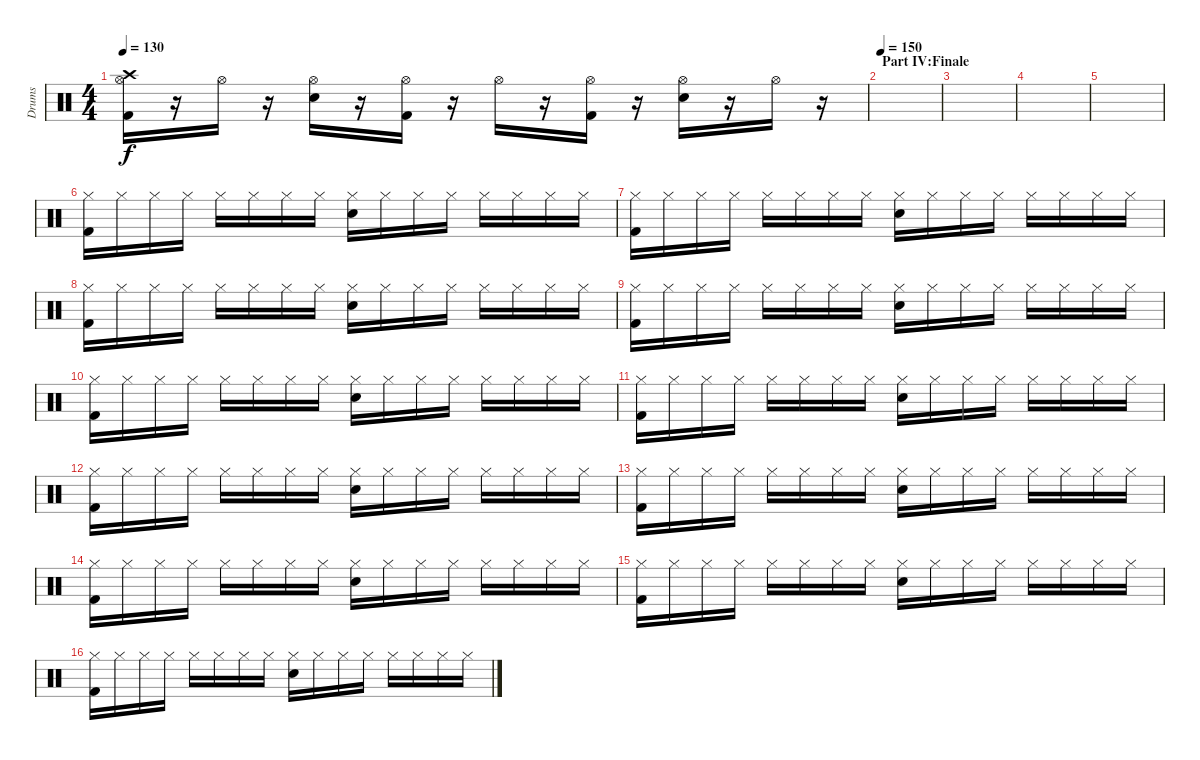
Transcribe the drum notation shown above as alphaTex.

\track ("Drums" "Drums") {instrument percussion}
\staff {score}
\articulation defaults
\ts (4 4)
\tempo 130
\clef neutral
\ks c
("Crash high (hit)" "Hi-Hat (open)" "Kick (hit) 2").16{dy f} r.16 "Hi-Hat (open)".16 r.16 ("Hi-Hat (open)" "Snare (hit) 2").16 r.16 ("Hi-Hat (open)" "Kick (hit) 2").16 r.16 "Hi-Hat (open)".16 r.16 ("Hi-Hat (open)" "Kick (hit) 2").16 r.16 ("Hi-Hat (open)" "Snare (hit) 2").16 r.16 "Hi-Hat (open)".16 r.16 |
\section ("" "Part IV:Finale")
\tempo 150
|
|
|
|
("Hi-Hat (closed)" "Kick (hit) 2").16 "Hi-Hat (closed)".16 "Hi-Hat (closed)".16 "Hi-Hat (closed)".16 "Hi-Hat (closed)".16 "Hi-Hat (closed)".16 "Hi-Hat (closed)".16 "Hi-Hat (closed)".16 ("Hi-Hat (closed)" "Snare (hit) 2").16 "Hi-Hat (closed)".16 "Hi-Hat (closed)".16 "Hi-Hat (closed)".16 "Hi-Hat (closed)".16 "Hi-Hat (closed)".16 "Hi-Hat (closed)".16 "Hi-Hat (closed)".16 |
("Hi-Hat (closed)" "Kick (hit) 2").16 "Hi-Hat (closed)".16 "Hi-Hat (closed)".16 "Hi-Hat (closed)".16 "Hi-Hat (closed)".16 "Hi-Hat (closed)".16 "Hi-Hat (closed)".16 "Hi-Hat (closed)".16 ("Hi-Hat (closed)" "Snare (hit) 2").16 "Hi-Hat (closed)".16 "Hi-Hat (closed)".16 "Hi-Hat (closed)".16 "Hi-Hat (closed)".16 "Hi-Hat (closed)".16 "Hi-Hat (closed)".16 "Hi-Hat (closed)".16 |
("Hi-Hat (closed)" "Kick (hit) 2").16 "Hi-Hat (closed)".16 "Hi-Hat (closed)".16 "Hi-Hat (closed)".16 "Hi-Hat (closed)".16 "Hi-Hat (closed)".16 "Hi-Hat (closed)".16 "Hi-Hat (closed)".16 ("Hi-Hat (closed)" "Snare (hit) 2").16 "Hi-Hat (closed)".16 "Hi-Hat (closed)".16 "Hi-Hat (closed)".16 "Hi-Hat (closed)".16 "Hi-Hat (closed)".16 "Hi-Hat (closed)".16 "Hi-Hat (closed)".16 |
("Hi-Hat (closed)" "Kick (hit) 2").16 "Hi-Hat (closed)".16 "Hi-Hat (closed)".16 "Hi-Hat (closed)".16 "Hi-Hat (closed)".16 "Hi-Hat (closed)".16 "Hi-Hat (closed)".16 "Hi-Hat (closed)".16 ("Hi-Hat (closed)" "Snare (hit) 2").16 "Hi-Hat (closed)".16 "Hi-Hat (closed)".16 "Hi-Hat (closed)".16 "Hi-Hat (closed)".16 "Hi-Hat (closed)".16 "Hi-Hat (closed)".16 "Hi-Hat (closed)".16 |
("Hi-Hat (closed)" "Kick (hit) 2").16 "Hi-Hat (closed)".16 "Hi-Hat (closed)".16 "Hi-Hat (closed)".16 "Hi-Hat (closed)".16 "Hi-Hat (closed)".16 "Hi-Hat (closed)".16 "Hi-Hat (closed)".16 ("Hi-Hat (closed)" "Snare (hit) 2").16 "Hi-Hat (closed)".16 "Hi-Hat (closed)".16 "Hi-Hat (closed)".16 "Hi-Hat (closed)".16 "Hi-Hat (closed)".16 "Hi-Hat (closed)".16 "Hi-Hat (closed)".16 |
("Hi-Hat (closed)" "Kick (hit) 2").16 "Hi-Hat (closed)".16 "Hi-Hat (closed)".16 "Hi-Hat (closed)".16 "Hi-Hat (closed)".16 "Hi-Hat (closed)".16 "Hi-Hat (closed)".16 "Hi-Hat (closed)".16 ("Hi-Hat (closed)" "Snare (hit) 2").16 "Hi-Hat (closed)".16 "Hi-Hat (closed)".16 "Hi-Hat (closed)".16 "Hi-Hat (closed)".16 "Hi-Hat (closed)".16 "Hi-Hat (closed)".16 "Hi-Hat (closed)".16 |
("Hi-Hat (closed)" "Kick (hit) 2").16 "Hi-Hat (closed)".16 "Hi-Hat (closed)".16 "Hi-Hat (closed)".16 "Hi-Hat (closed)".16 "Hi-Hat (closed)".16 "Hi-Hat (closed)".16 "Hi-Hat (closed)".16 ("Hi-Hat (closed)" "Snare (hit) 2").16 "Hi-Hat (closed)".16 "Hi-Hat (closed)".16 "Hi-Hat (closed)".16 "Hi-Hat (closed)".16 "Hi-Hat (closed)".16 "Hi-Hat (closed)".16 "Hi-Hat (closed)".16 |
("Hi-Hat (closed)" "Kick (hit) 2").16 "Hi-Hat (closed)".16 "Hi-Hat (closed)".16 "Hi-Hat (closed)".16 "Hi-Hat (closed)".16 "Hi-Hat (closed)".16 "Hi-Hat (closed)".16 "Hi-Hat (closed)".16 ("Hi-Hat (closed)" "Snare (hit) 2").16 "Hi-Hat (closed)".16 "Hi-Hat (closed)".16 "Hi-Hat (closed)".16 "Hi-Hat (closed)".16 "Hi-Hat (closed)".16 "Hi-Hat (closed)".16 "Hi-Hat (closed)".16 |
("Hi-Hat (closed)" "Kick (hit) 2").16 "Hi-Hat (closed)".16 "Hi-Hat (closed)".16 "Hi-Hat (closed)".16 "Hi-Hat (closed)".16 "Hi-Hat (closed)".16 "Hi-Hat (closed)".16 "Hi-Hat (closed)".16 ("Hi-Hat (closed)" "Snare (hit) 2").16 "Hi-Hat (closed)".16 "Hi-Hat (closed)".16 "Hi-Hat (closed)".16 "Hi-Hat (closed)".16 "Hi-Hat (closed)".16 "Hi-Hat (closed)".16 "Hi-Hat (closed)".16 |
("Hi-Hat (closed)" "Kick (hit) 2").16 "Hi-Hat (closed)".16 "Hi-Hat (closed)".16 "Hi-Hat (closed)".16 "Hi-Hat (closed)".16 "Hi-Hat (closed)".16 "Hi-Hat (closed)".16 "Hi-Hat (closed)".16 ("Hi-Hat (closed)" "Snare (hit) 2").16 "Hi-Hat (closed)".16 "Hi-Hat (closed)".16 "Hi-Hat (closed)".16 "Hi-Hat (closed)".16 "Hi-Hat (closed)".16 "Hi-Hat (closed)".16 "Hi-Hat (closed)".16 |
("Hi-Hat (closed)" "Kick (hit) 2").16 "Hi-Hat (closed)".16 "Hi-Hat (closed)".16 "Hi-Hat (closed)".16 "Hi-Hat (closed)".16 "Hi-Hat (closed)".16 "Hi-Hat (closed)".16 "Hi-Hat (closed)".16 ("Hi-Hat (closed)" "Snare (hit) 2").16 "Hi-Hat (closed)".16 "Hi-Hat (closed)".16 "Hi-Hat (closed)".16 "Hi-Hat (closed)".16 "Hi-Hat (closed)".16 "Hi-Hat (closed)".16 "Hi-Hat (closed)".16
